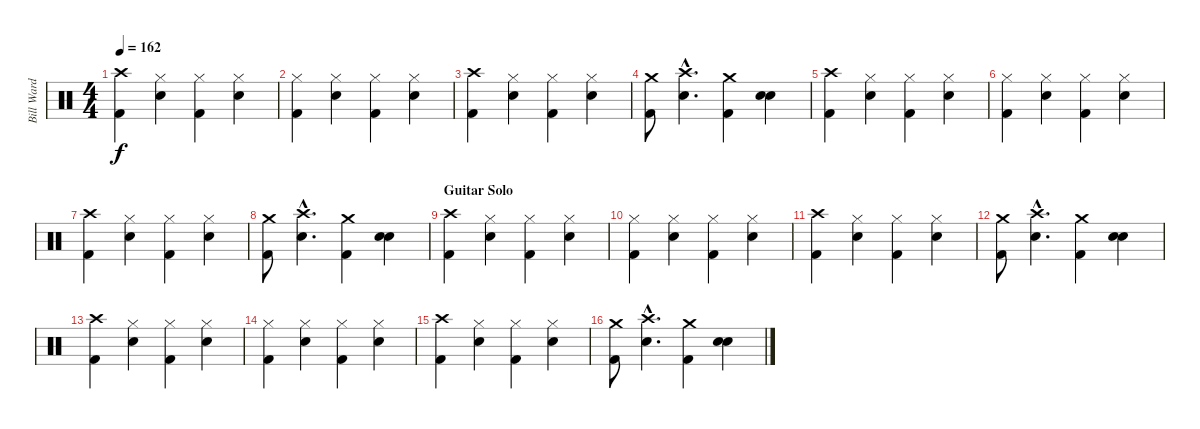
\track ("Bill Ward" "Bill Ward") {instrument percussion}
\staff {score}
\articulation defaults
\ts (4 4)
\tempo 162
\clef neutral
\ks c
("Crash high (hit)" "Kick (hit) 2").4{dy f} ("Hi-Hat (closed)" "Snare (hit) 2").4 ("Hi-Hat (closed)" "Kick (hit) 2").4 ("Hi-Hat (closed)" "Snare (hit) 2").4 |
("Hi-Hat (closed)" "Kick (hit) 2").4 ("Hi-Hat (closed)" "Snare (hit) 2").4 ("Hi-Hat (closed)" "Kick (hit) 2").4 ("Hi-Hat (closed)" "Snare (hit) 2").4 |
("Crash high (hit)" "Kick (hit) 2").4 ("Hi-Hat (closed)" "Snare (hit) 2").4 ("Hi-Hat (closed)" "Kick (hit) 2").4 ("Hi-Hat (closed)" "Snare (hit) 2").4 |
("Kick (hit) 2" "Crash medium (hit)").8 ("Snare (hit) 2"{hac} "Crash high (hit)"{hac}).4{d} ("Kick (hit) 2" "Crash medium (hit)").4 ("Snare (hit) 2" "Snare (hit) 2").4{bd 480} |
("Crash high (hit)" "Kick (hit) 2").4 ("Hi-Hat (closed)" "Snare (hit) 2").4 ("Hi-Hat (closed)" "Kick (hit) 2").4 ("Hi-Hat (closed)" "Snare (hit) 2").4 |
("Hi-Hat (closed)" "Kick (hit) 2").4 ("Hi-Hat (closed)" "Snare (hit) 2").4 ("Hi-Hat (closed)" "Kick (hit) 2").4 ("Hi-Hat (closed)" "Snare (hit) 2").4 |
("Crash high (hit)" "Kick (hit) 2").4 ("Hi-Hat (closed)" "Snare (hit) 2").4 ("Hi-Hat (closed)" "Kick (hit) 2").4 ("Hi-Hat (closed)" "Snare (hit) 2").4 |
("Kick (hit) 2" "Crash medium (hit)").8 ("Snare (hit) 2"{hac} "Crash high (hit)"{hac}).4{d} ("Kick (hit) 2" "Crash medium (hit)").4 ("Snare (hit) 2" "Snare (hit) 2").4{bd 480} |
\section ("" "Guitar Solo")
("Crash high (hit)" "Kick (hit) 2").4 ("Hi-Hat (closed)" "Snare (hit) 2").4 ("Hi-Hat (closed)" "Kick (hit) 2").4 ("Hi-Hat (closed)" "Snare (hit) 2").4 |
("Hi-Hat (closed)" "Kick (hit) 2").4 ("Hi-Hat (closed)" "Snare (hit) 2").4 ("Hi-Hat (closed)" "Kick (hit) 2").4 ("Hi-Hat (closed)" "Snare (hit) 2").4 |
("Crash high (hit)" "Kick (hit) 2").4 ("Hi-Hat (closed)" "Snare (hit) 2").4 ("Hi-Hat (closed)" "Kick (hit) 2").4 ("Hi-Hat (closed)" "Snare (hit) 2").4 |
("Kick (hit) 2" "Crash medium (hit)").8 ("Snare (hit) 2"{hac} "Crash high (hit)"{hac}).4{d} ("Kick (hit) 2" "Crash medium (hit)").4 ("Snare (hit) 2" "Snare (hit) 2").4{bd 480} |
("Crash high (hit)" "Kick (hit) 2").4 ("Hi-Hat (closed)" "Snare (hit) 2").4 ("Hi-Hat (closed)" "Kick (hit) 2").4 ("Hi-Hat (closed)" "Snare (hit) 2").4 |
("Hi-Hat (closed)" "Kick (hit) 2").4 ("Hi-Hat (closed)" "Snare (hit) 2").4 ("Hi-Hat (closed)" "Kick (hit) 2").4 ("Hi-Hat (closed)" "Snare (hit) 2").4 |
("Crash high (hit)" "Kick (hit) 2").4 ("Hi-Hat (closed)" "Snare (hit) 2").4 ("Hi-Hat (closed)" "Kick (hit) 2").4 ("Hi-Hat (closed)" "Snare (hit) 2").4 |
("Kick (hit) 2" "Crash medium (hit)").8 ("Snare (hit) 2"{hac} "Crash high (hit)"{hac}).4{d} ("Kick (hit) 2" "Crash medium (hit)").4 ("Snare (hit) 2" "Snare (hit) 2").4{bd 480}
